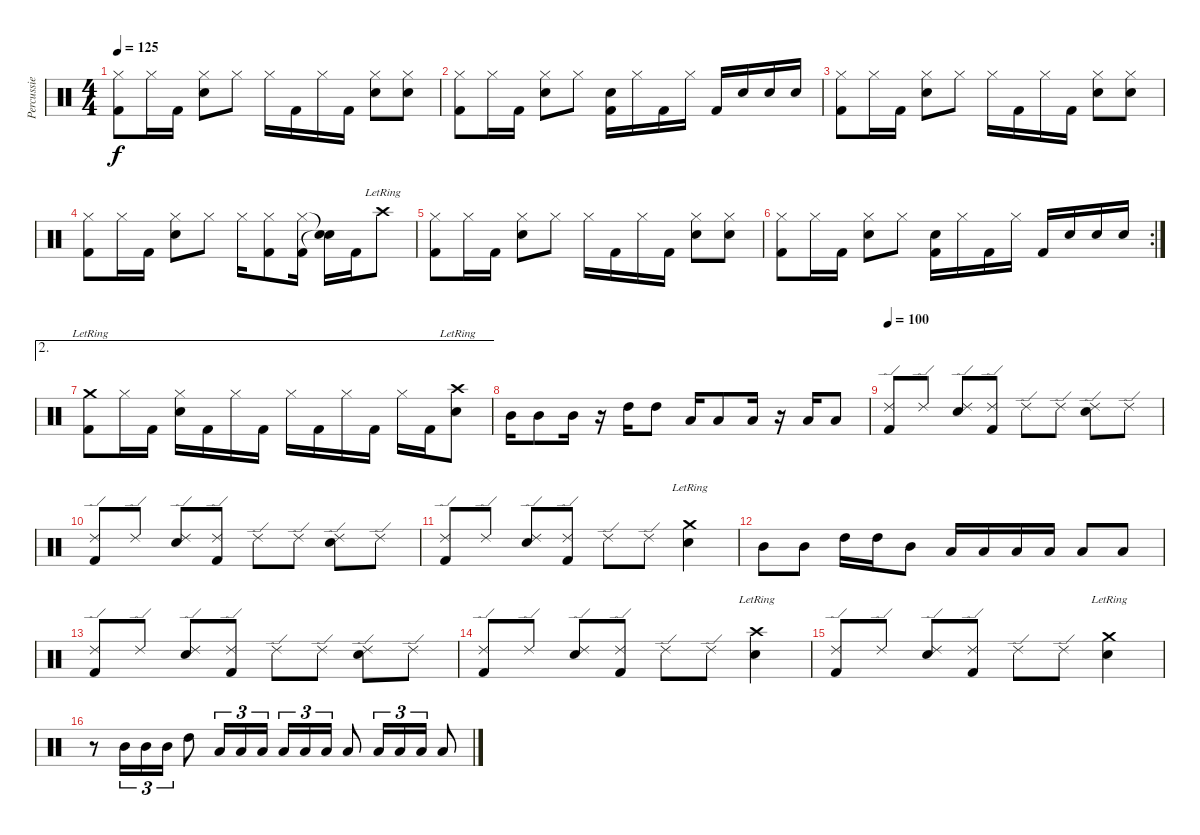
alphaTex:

\track ("Percussie" "Percussie") {instrument percussion}
\staff {score}
\articulation defaults
\ts (4 4)
\tempo 125
\clef neutral
\ks c
("Hi-Hat (closed)" "Kick (hit) 2").8{dy f} "Hi-Hat (closed)".16 "Kick (hit) 2".16 ("Hi-Hat (closed)" "Snare (hit) 2").8 "Hi-Hat (closed)".8 "Hi-Hat (closed)".16 "Kick (hit) 2".16 "Hi-Hat (closed)".16 "Kick (hit) 2".16 ("Hi-Hat (closed)" "Snare (hit) 2").8 ("Hi-Hat (closed)" "Snare (hit) 2").8 |
("Hi-Hat (closed)" "Kick (hit) 2").8 "Hi-Hat (closed)".16 "Kick (hit) 2".16 ("Hi-Hat (closed)" "Snare (hit) 2").8 "Hi-Hat (closed)".8 ("Snare (hit) 2" "Kick (hit) 2").16 "Hi-Hat (closed)".16 "Kick (hit) 2".16 "Hi-Hat (closed)".16 "Kick (hit) 2".16 "Snare (hit) 2".16 "Snare (hit) 2".16 "Snare (hit) 2".16 |
("Hi-Hat (closed)" "Kick (hit) 2").8 "Hi-Hat (closed)".16 "Kick (hit) 2".16 ("Hi-Hat (closed)" "Snare (hit) 2").8 "Hi-Hat (closed)".8 "Hi-Hat (closed)".16 "Kick (hit) 2".16 "Hi-Hat (closed)".16 "Kick (hit) 2".16 ("Hi-Hat (closed)" "Snare (hit) 2").8 ("Hi-Hat (closed)" "Snare (hit) 2").8 |
("Hi-Hat (closed)" "Kick (hit) 2").8 "Hi-Hat (closed)".16 "Kick (hit) 2".16 ("Hi-Hat (closed)" "Snare (hit) 2").8 "Hi-Hat (closed)".8 "Hi-Hat (closed)".16 ("Hi-Hat (closed)" "Kick (hit) 2").8 ("Hi-Hat (closed)" "Kick (hit) 2").16 ("Snare (hit)"{t} "Snare (hit)"{t}).16 "Kick (hit) 2".16 "Crash high (hit)"{lr}.8 |
("Hi-Hat (closed)" "Kick (hit) 2").8 "Hi-Hat (closed)".16 "Kick (hit) 2".16 ("Hi-Hat (closed)" "Snare (hit) 2").8 "Hi-Hat (closed)".8 "Hi-Hat (closed)".16 "Kick (hit) 2".16 "Hi-Hat (closed)".16 "Kick (hit) 2".16 ("Hi-Hat (closed)" "Snare (hit) 2").8 ("Hi-Hat (closed)" "Snare (hit) 2").8 |
\rc 2
("Hi-Hat (closed)" "Kick (hit) 2").8 "Hi-Hat (closed)".16 "Kick (hit) 2".16 ("Hi-Hat (closed)" "Snare (hit) 2").8 "Hi-Hat (closed)".8 ("Snare (hit) 2" "Kick (hit) 2").16 "Hi-Hat (closed)".16 "Kick (hit) 2".16 "Hi-Hat (closed)".16 "Kick (hit) 2".16 "Snare (hit) 2".16 "Snare (hit) 2".16 "Snare (hit) 2".16 |
\ae 2
("Crash medium (hit)"{lr} "Kick (hit) 2").8 "Hi-Hat (closed)".16 "Kick (hit) 2".16 ("Hi-Hat (closed)" "Snare (hit) 2").16 "Kick (hit) 2".16 "Hi-Hat (closed)".16 "Kick (hit) 2".16 "Hi-Hat (closed)".16 "Kick (hit) 2".16 "Hi-Hat (closed)".16 "Kick (hit) 2".16 "Hi-Hat (closed)".16 "Kick (hit) 2".16 ("Crash high (hit)"{lr} "Snare (hit) 2").8 |
"Mid Tom (hit)".16 "Mid Tom (hit)".8 "Mid Tom (hit)".16 r.16 "High Tom (hit)".16 "High Tom (hit)".8 "Low Tom (hit)".16 "Low Tom (hit)".8 "Low Tom (hit)".16 r.16 "Low Tom (hit)".16 "Low Tom (hit)".8 |
\tempo 100
("Ride (edge) 2" "Kick (hit) 2").8 "Ride (edge) 2".8 ("Ride (edge) 2" "Snare (hit) 2").8 ("Ride (edge) 2" "Kick (hit) 2").8 "Ride (edge) 2".8 "Ride (edge) 2".8 ("Ride (edge) 2" "Snare (hit) 2").8 "Ride (edge) 2".8 |
("Ride (edge) 2" "Kick (hit) 2").8 "Ride (edge) 2".8 ("Ride (edge) 2" "Snare (hit) 2").8 ("Ride (edge) 2" "Kick (hit) 2").8 "Ride (edge) 2".8 "Ride (edge) 2".8 ("Ride (edge) 2" "Snare (hit) 2").8 "Ride (edge) 2".8 |
("Ride (edge) 2" "Kick (hit) 2").8 "Ride (edge) 2".8 ("Ride (edge) 2" "Snare (hit) 2").8 ("Ride (edge) 2" "Kick (hit) 2").8 "Ride (edge) 2".8 "Ride (edge) 2".8 ("Crash medium (hit)"{lr} "Snare (hit) 2").4 |
"Mid Tom (hit)".8 "Mid Tom (hit)".8 "High Tom (hit)".16 "High Tom (hit)".16 "Mid Tom (hit)".8 "Low Tom (hit)".16 "Low Tom (hit)".16 "Low Tom (hit)".16 "Low Tom (hit)".16 "Low Tom (hit)".8 "Low Tom (hit)".8 |
("Ride (edge) 2" "Kick (hit) 2").8 "Ride (edge) 2".8 ("Ride (edge) 2" "Snare (hit) 2").8 ("Ride (edge) 2" "Kick (hit) 2").8 "Ride (edge) 2".8 "Ride (edge) 2".8 ("Ride (edge) 2" "Snare (hit) 2").8 "Ride (edge) 2".8 |
("Ride (edge) 2" "Kick (hit) 2").8 "Ride (edge) 2".8 ("Ride (edge) 2" "Snare (hit) 2").8 ("Ride (edge) 2" "Kick (hit) 2").8 "Ride (edge) 2".8 "Ride (edge) 2".8 ("Crash high (hit)"{lr} "Snare (hit) 2").4 |
("Ride (edge) 2" "Kick (hit) 2").8 "Ride (edge) 2".8 ("Ride (edge) 2" "Snare (hit) 2").8 ("Ride (edge) 2" "Kick (hit) 2").8 "Ride (edge) 2".8 "Ride (edge) 2".8 ("Crash medium (hit)"{lr} "Snare (hit) 2").4 |
r.8 "Mid Tom (hit)".16{tu (3 2)} "Mid Tom (hit)".16{tu (3 2)} "Mid Tom (hit)".16{tu (3 2)} "High Tom (hit)".8 "Low Tom (hit)".16{tu (3 2)} "Low Tom (hit)".16{tu (3 2)} "Low Tom (hit)".16{tu (3 2)} "Low Tom (hit)".16{tu (3 2)} "Low Tom (hit)".16{tu (3 2)} "Low Tom (hit)".16{tu (3 2)} "Low Tom (hit)".8 "Low Tom (hit)".16{tu (3 2)} "Low Tom (hit)".16{tu (3 2)} "Low Tom (hit)".16{tu (3 2)} "Low Tom (hit)".8
